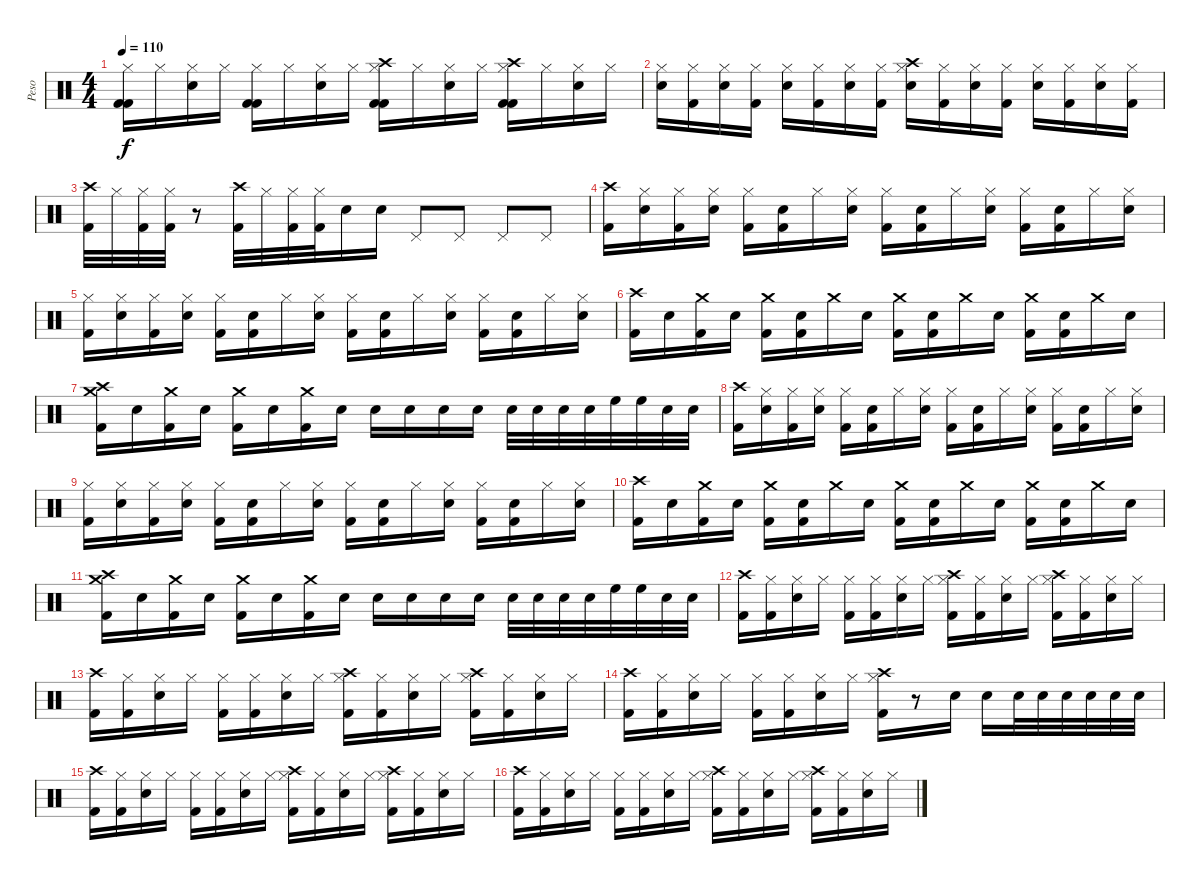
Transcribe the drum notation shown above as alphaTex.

\track ("Peso" "Peso") {instrument percussion}
\staff {score}
\articulation defaults
\ts (4 4)
\tempo 110
\clef neutral
\ks c
("Hi-Hat (closed)" "Kick (hit) 2" "Kick (hit) 2").16{dy f} "Hi-Hat (closed)".16 ("Hi-Hat (closed)" "Snare (hit) 2").16 "Hi-Hat (closed)".16 ("Hi-Hat (closed)" "Kick (hit) 2" "Kick (hit) 2").16 "Hi-Hat (closed)".16 ("Hi-Hat (closed)" "Snare (hit) 2").16 "Hi-Hat (closed)".16 ("Crash high (hit)" "Hi-Hat (closed)" "Kick (hit) 2" "Kick (hit) 2").16 "Hi-Hat (closed)".16 ("Hi-Hat (closed)" "Snare (hit) 2").16 "Hi-Hat (closed)".16 ("Crash high (hit)" "Hi-Hat (closed)" "Kick (hit) 2" "Kick (hit) 2").16 "Hi-Hat (closed)".16 ("Hi-Hat (closed)" "Snare (hit) 2").16 "Hi-Hat (closed)".16 |
("Hi-Hat (closed)" "Snare (hit) 2").16 ("Hi-Hat (closed)" "Kick (hit) 2").16 ("Hi-Hat (closed)" "Snare (hit) 2").16 ("Hi-Hat (closed)" "Kick (hit) 2").16 ("Hi-Hat (closed)" "Snare (hit) 2").16 ("Hi-Hat (closed)" "Kick (hit) 2").16 ("Hi-Hat (closed)" "Snare (hit) 2").16 ("Hi-Hat (closed)" "Kick (hit) 2").16 ("Crash high (hit)" "Hi-Hat (closed)" "Snare (hit) 2").16 ("Hi-Hat (closed)" "Kick (hit) 2").16 ("Hi-Hat (closed)" "Snare (hit) 2").16 ("Hi-Hat (closed)" "Kick (hit) 2").16 ("Hi-Hat (closed)" "Snare (hit) 2").16 ("Hi-Hat (closed)" "Kick (hit) 2").16 ("Hi-Hat (closed)" "Snare (hit) 2").16 ("Hi-Hat (closed)" "Kick (hit) 2").16 |
("Crash high (hit)" "Kick (hit) 2").32 "Hi-Hat (closed)".32 ("Hi-Hat (closed)" "Kick (hit) 2").32 ("Hi-Hat (closed)" "Kick (hit) 2").32 r.8 ("Crash high (hit)" "Kick (hit) 2").32 "Hi-Hat (closed)".32 ("Hi-Hat (closed)" "Kick (hit) 2").32 ("Hi-Hat (closed)" "Kick (hit) 2").32 "Snare (hit)"{x}.16 "Snare (hit)"{x}.16 "Pedal Hi-Hat (hit)".8 "Pedal Hi-Hat (hit)".8 "Pedal Hi-Hat (hit)".8 "Pedal Hi-Hat (hit)".8 |
("Crash high (hit)" "Kick (hit) 2").16 ("Hi-Hat (closed)" "Snare (hit) 2").16 ("Hi-Hat (closed)" "Kick (hit) 2").16 ("Hi-Hat (closed)" "Snare (hit) 2").16 ("Hi-Hat (closed)" "Kick (hit) 2").16 ("Snare (hit) 2" "Kick (hit) 2").16 "Hi-Hat (closed)".16 ("Hi-Hat (closed)" "Snare (hit) 2").16 ("Hi-Hat (closed)" "Kick (hit) 2").16 ("Snare (hit) 2" "Kick (hit) 2").16 "Hi-Hat (closed)".16 ("Hi-Hat (closed)" "Snare (hit) 2").16 ("Hi-Hat (closed)" "Kick (hit) 2").16 ("Snare (hit) 2" "Kick (hit) 2").16 "Hi-Hat (closed)".16 ("Hi-Hat (closed)" "Snare (hit) 2").16 |
("Hi-Hat (closed)" "Kick (hit) 2").16 ("Hi-Hat (closed)" "Snare (hit) 2").16 ("Hi-Hat (closed)" "Kick (hit) 2").16 ("Hi-Hat (closed)" "Snare (hit) 2").16 ("Hi-Hat (closed)" "Kick (hit) 2").16 ("Snare (hit) 2" "Kick (hit) 2").16 "Hi-Hat (closed)".16 ("Hi-Hat (closed)" "Snare (hit) 2").16 ("Hi-Hat (closed)" "Kick (hit) 2").16 ("Snare (hit) 2" "Kick (hit) 2").16 "Hi-Hat (closed)".16 ("Hi-Hat (closed)" "Snare (hit) 2").16 ("Hi-Hat (closed)" "Kick (hit) 2").16 ("Snare (hit) 2" "Kick (hit) 2").16 "Hi-Hat (closed)".16 ("Hi-Hat (closed)" "Snare (hit) 2").16 |
("Crash high (hit)" "Kick (hit) 2").16 "Snare (hit) 2".16 ("Crash medium (hit)" "Kick (hit) 2").16 "Snare (hit) 2".16 ("Crash medium (hit)" "Kick (hit) 2").16 ("Snare (hit) 2" "Kick (hit) 2").16 "Crash medium (hit)".16 "Snare (hit) 2".16 ("Crash medium (hit)" "Kick (hit) 2").16 ("Snare (hit) 2" "Kick (hit) 2").16 "Crash medium (hit)".16 "Snare (hit) 2".16 ("Crash medium (hit)" "Kick (hit) 2").16 ("Snare (hit) 2" "Kick (hit) 2").16 "Crash medium (hit)".16 "Snare (hit) 2".16 |
("Crash high (hit)" "Crash medium (hit)" "Kick (hit) 2").16 "Snare (hit) 2".16 ("Crash medium (hit)" "Kick (hit) 2").16 "Snare (hit) 2".16 ("Crash medium (hit)" "Kick (hit) 2").16 "Snare (hit) 2".16 ("Crash medium (hit)" "Kick (hit) 2").16 "Snare (hit) 2".16 "Snare (hit) 2".16 "Snare (hit) 2".16 "Snare (hit) 2".16 "Snare (hit) 2".16 "Snare (hit) 2".32 "Snare (hit) 2".32 "Snare (hit) 2".32 "Snare (hit) 2".32 "High Floor Tom (hit)".32 "High Floor Tom (hit)".32 "Snare (hit) 2".32 "Snare (hit) 2".32 |
("Crash high (hit)" "Kick (hit) 2").16 ("Hi-Hat (closed)" "Snare (hit) 2").16 ("Hi-Hat (closed)" "Kick (hit) 2").16 ("Hi-Hat (closed)" "Snare (hit) 2").16 ("Hi-Hat (closed)" "Kick (hit) 2").16 ("Snare (hit) 2" "Kick (hit) 2").16 "Hi-Hat (closed)".16 ("Hi-Hat (closed)" "Snare (hit) 2").16 ("Hi-Hat (closed)" "Kick (hit) 2").16 ("Snare (hit) 2" "Kick (hit) 2").16 "Hi-Hat (closed)".16 ("Hi-Hat (closed)" "Snare (hit) 2").16 ("Hi-Hat (closed)" "Kick (hit) 2").16 ("Snare (hit) 2" "Kick (hit) 2").16 "Hi-Hat (closed)".16 ("Hi-Hat (closed)" "Snare (hit) 2").16 |
("Hi-Hat (closed)" "Kick (hit) 2").16 ("Hi-Hat (closed)" "Snare (hit) 2").16 ("Hi-Hat (closed)" "Kick (hit) 2").16 ("Hi-Hat (closed)" "Snare (hit) 2").16 ("Hi-Hat (closed)" "Kick (hit) 2").16 ("Snare (hit) 2" "Kick (hit) 2").16 "Hi-Hat (closed)".16 ("Hi-Hat (closed)" "Snare (hit) 2").16 ("Hi-Hat (closed)" "Kick (hit) 2").16 ("Snare (hit) 2" "Kick (hit) 2").16 "Hi-Hat (closed)".16 ("Hi-Hat (closed)" "Snare (hit) 2").16 ("Hi-Hat (closed)" "Kick (hit) 2").16 ("Snare (hit) 2" "Kick (hit) 2").16 "Hi-Hat (closed)".16 ("Hi-Hat (closed)" "Snare (hit) 2").16 |
("Crash high (hit)" "Kick (hit) 2").16 "Snare (hit) 2".16 ("Crash medium (hit)" "Kick (hit) 2").16 "Snare (hit) 2".16 ("Crash medium (hit)" "Kick (hit) 2").16 ("Snare (hit) 2" "Kick (hit) 2").16 "Crash medium (hit)".16 "Snare (hit) 2".16 ("Crash medium (hit)" "Kick (hit) 2").16 ("Snare (hit) 2" "Kick (hit) 2").16 "Crash medium (hit)".16 "Snare (hit) 2".16 ("Crash medium (hit)" "Kick (hit) 2").16 ("Snare (hit) 2" "Kick (hit) 2").16 "Crash medium (hit)".16 "Snare (hit) 2".16 |
("Crash high (hit)" "Crash medium (hit)" "Kick (hit) 2").16 "Snare (hit) 2".16 ("Crash medium (hit)" "Kick (hit) 2").16 "Snare (hit) 2".16 ("Crash medium (hit)" "Kick (hit) 2").16 "Snare (hit) 2".16 ("Crash medium (hit)" "Kick (hit) 2").16 "Snare (hit) 2".16 "Snare (hit) 2".16 "Snare (hit) 2".16 "Snare (hit) 2".16 "Snare (hit) 2".16 "Snare (hit) 2".32 "Snare (hit) 2".32 "Snare (hit) 2".32 "Snare (hit) 2".32 "High Floor Tom (hit)".32 "High Floor Tom (hit)".32 "Snare (hit) 2".32 "Snare (hit) 2".32 |
("Crash high (hit)" "Kick (hit) 2").16 ("Hi-Hat (closed)" "Kick (hit) 2").16 ("Hi-Hat (closed)" "Snare (hit) 2").16 "Hi-Hat (closed)".16 ("Hi-Hat (closed)" "Kick (hit) 2").16 ("Hi-Hat (closed)" "Kick (hit) 2").16 ("Hi-Hat (closed)" "Snare (hit) 2").16 "Hi-Hat (closed)".16 ("Crash high (hit)" "Hi-Hat (closed)" "Kick (hit) 2").16 ("Hi-Hat (closed)" "Kick (hit) 2").16 ("Hi-Hat (closed)" "Snare (hit) 2").16 "Hi-Hat (closed)".16 ("Crash high (hit)" "Hi-Hat (closed)" "Kick (hit) 2").16 ("Hi-Hat (closed)" "Kick (hit) 2").16 ("Hi-Hat (closed)" "Snare (hit) 2").16 "Hi-Hat (closed)".16 |
("Crash high (hit)" "Kick (hit) 2").16 ("Hi-Hat (closed)" "Kick (hit) 2").16 ("Hi-Hat (closed)" "Snare (hit) 2").16 "Hi-Hat (closed)".16 ("Hi-Hat (closed)" "Kick (hit) 2").16 ("Hi-Hat (closed)" "Kick (hit) 2").16 ("Hi-Hat (closed)" "Snare (hit) 2").16 "Hi-Hat (closed)".16 ("Crash high (hit)" "Hi-Hat (closed)" "Kick (hit) 2").16 ("Hi-Hat (closed)" "Kick (hit) 2").16 ("Hi-Hat (closed)" "Snare (hit) 2").16 "Hi-Hat (closed)".16 ("Crash high (hit)" "Hi-Hat (closed)" "Kick (hit) 2").16 ("Hi-Hat (closed)" "Kick (hit) 2").16 ("Hi-Hat (closed)" "Snare (hit) 2").16 "Hi-Hat (closed)".16 |
("Crash high (hit)" "Kick (hit) 2").16 ("Hi-Hat (closed)" "Kick (hit) 2").16 ("Hi-Hat (closed)" "Snare (hit) 2").16 "Hi-Hat (closed)".16 ("Hi-Hat (closed)" "Kick (hit) 2").16 ("Hi-Hat (closed)" "Kick (hit) 2").16 ("Hi-Hat (closed)" "Snare (hit) 2").16 "Hi-Hat (closed)".16 ("Crash high (hit)" "Hi-Hat (closed)" "Kick (hit) 2").16 r.8 "Snare (hit) 2"{x}.16 "Snare (hit) 2"{x}.16 "Snare (hit) 2"{x}.32 "Snare (hit) 2".32 "Snare (hit) 2".32 "Snare (hit) 2".32 "Snare (hit) 2".32 "Snare (hit) 2".32 |
("Crash high (hit)" "Kick (hit) 2").16 ("Hi-Hat (closed)" "Kick (hit) 2").16 ("Hi-Hat (closed)" "Snare (hit) 2").16 "Hi-Hat (closed)".16 ("Hi-Hat (closed)" "Kick (hit) 2").16 ("Hi-Hat (closed)" "Kick (hit) 2").16 ("Hi-Hat (closed)" "Snare (hit) 2").16 "Hi-Hat (closed)".16 ("Crash high (hit)" "Hi-Hat (closed)" "Kick (hit) 2").16 ("Hi-Hat (closed)" "Kick (hit) 2").16 ("Hi-Hat (closed)" "Snare (hit) 2").16 "Hi-Hat (closed)".16 ("Crash high (hit)" "Hi-Hat (closed)" "Kick (hit) 2").16 ("Hi-Hat (closed)" "Kick (hit) 2").16 ("Hi-Hat (closed)" "Snare (hit) 2").16 "Hi-Hat (closed)".16 |
("Crash high (hit)" "Kick (hit) 2").16 ("Hi-Hat (closed)" "Kick (hit) 2").16 ("Hi-Hat (closed)" "Snare (hit) 2").16 "Hi-Hat (closed)".16 ("Hi-Hat (closed)" "Kick (hit) 2").16 ("Hi-Hat (closed)" "Kick (hit) 2").16 ("Hi-Hat (closed)" "Snare (hit) 2").16 "Hi-Hat (closed)".16 ("Crash high (hit)" "Hi-Hat (closed)" "Kick (hit) 2").16 ("Hi-Hat (closed)" "Kick (hit) 2").16 ("Hi-Hat (closed)" "Snare (hit) 2").16 "Hi-Hat (closed)".16 ("Crash high (hit)" "Hi-Hat (closed)" "Kick (hit) 2").16 ("Hi-Hat (closed)" "Kick (hit) 2").16 ("Hi-Hat (closed)" "Snare (hit) 2").16 "Hi-Hat (closed)".16
